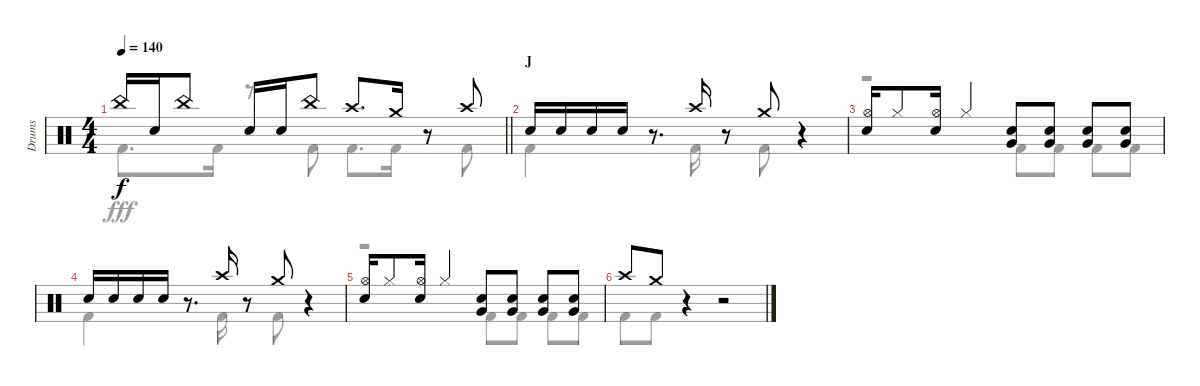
\track ("Drums" "Drums") {instrument percussion}
\staff {score}
\articulation defaults
\voice
\ts (4 4)
\tempo 140
\clef neutral
\barLineRight lightlight
\ks c "China (hit)".16{dy f} "Snare (hit) 2".16 "China (hit)".8 "Snare (hit) 2".16 "Snare (hit) 2".16 "China (hit)".8 "Crash high (hit)".8{d} "Crash medium (hit)".16
r.8 "Crash high (hit)".8 |
\section ("" "J")
"Snare (hit) 2".16 "Snare (hit) 2".16 "Snare (hit) 2".16 "Snare (hit) 2".16 r.8{d} "Crash high (hit)".16 r.8 "Crash medium (hit)".8 r.4 |
("Hi-Hat (open)" "Snare (hit) 2").16 "Hi-Hat (closed)".8 ("Hi-Hat (open)" "Snare (hit) 2").16 "Hi-Hat (closed)".4 ("Snare (hit) 2" "Very Low Tom (hit)").8 ("Snare (hit) 2" "Very Low Tom (hit)").8 ("Snare (hit) 2" "Very Low Tom (hit)").8 ("Snare (hit) 2" "Very Low Tom (hit)").8 |
"Snare (hit) 2".16 "Snare (hit) 2".16 "Snare (hit) 2".16 "Snare (hit) 2".16 r.8{d} "Crash high (hit)".16 r.8 "Crash medium (hit)".8 r.4 |
("Hi-Hat (open)" "Snare (hit) 2").16 "Hi-Hat (closed)".8 ("Hi-Hat (open)" "Snare (hit) 2").16 "Hi-Hat (closed)".4 ("Snare (hit) 2" "Very Low Tom (hit)").8 ("Snare (hit) 2" "Very Low Tom (hit)").8 ("Snare (hit) 2" "Very Low Tom (hit)").8 ("Snare (hit) 2" "Very Low Tom (hit)").8 |
"Crash high (hit)".8 "Crash medium (hit)".8 r.4 r.2
\voice
\clef neutral
\ottava regular
\simile none
\barLineRight lightlight
\ks c "Kick (hit) 2".8{d dy fff} "Kick (hit) 2".16
r.8 "Kick (hit) 2".8 "Kick (hit) 2".8{d} "Kick (hit) 2".16 r.8 "Kick (hit) 2".8 |
"Kick (hit) 2".4 r.8{d} "Kick (hit) 2".16 r.8 "Kick (hit) 2".8 r.4 |
r.2 "Kick (hit) 2".8 "Kick (hit) 2".8 "Kick (hit) 2".8 "Kick (hit) 2".8 |
"Kick (hit) 2".4 r.8{d} "Kick (hit) 2".16 r.8 "Kick (hit) 2".8 r.4 |
r.2 "Kick (hit) 2".8 "Kick (hit) 2".8 "Kick (hit) 2".8 "Kick (hit) 2".8 |
"Kick (hit) 2".8 "Kick (hit) 2".8 r.4 r.2
